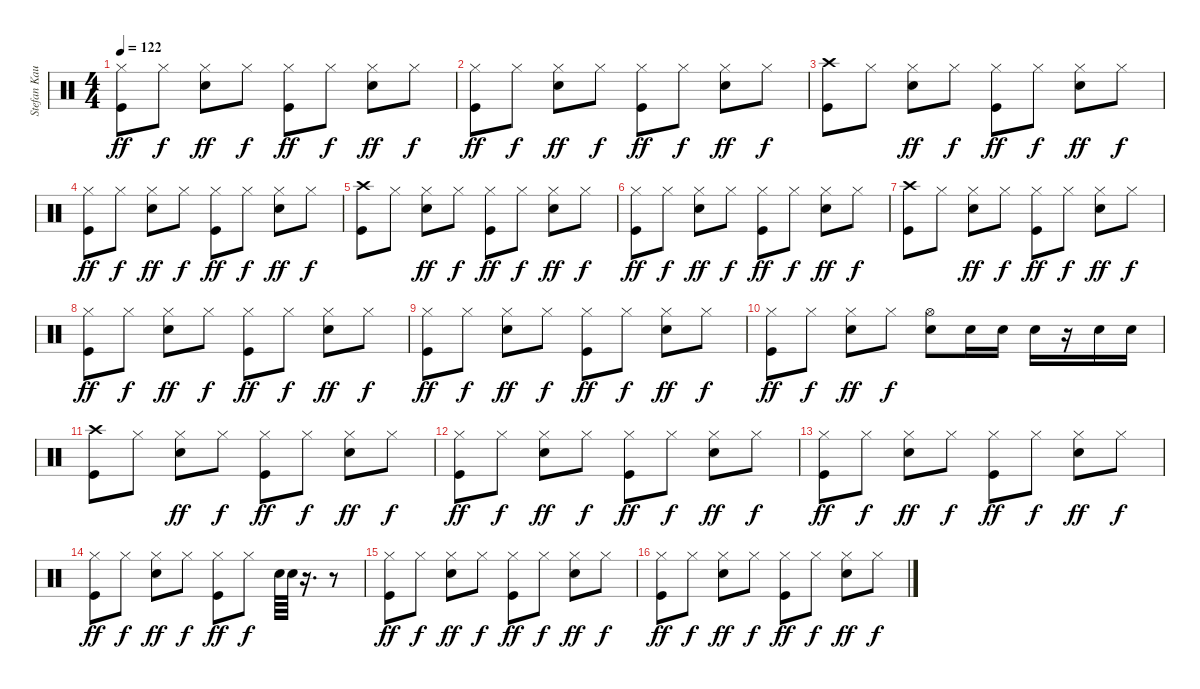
\track ("Stefan Kaufmann" "Stefan Kau") {instrument percussion}
\staff {score}
\articulation defaults
\ts (4 4)
\tempo 122
\clef neutral
\ks c
("Hi-Hat (closed)" "Kick (hit)").8{dy ff} "Hi-Hat (closed)".8{dy f} ("Hi-Hat (closed)" "Snare (hit) 2").8{dy ff} "Hi-Hat (closed)".8{dy f} ("Hi-Hat (closed)" "Kick (hit)").8{dy ff} "Hi-Hat (closed)".8{dy f} ("Hi-Hat (closed)" "Snare (hit) 2").8{dy ff} "Hi-Hat (closed)".8{dy f} |
("Hi-Hat (closed)" "Kick (hit)").8{dy ff} "Hi-Hat (closed)".8{dy f} ("Hi-Hat (closed)" "Snare (hit) 2").8{dy ff} "Hi-Hat (closed)".8{dy f} ("Hi-Hat (closed)" "Kick (hit)").8{dy ff} "Hi-Hat (closed)".8{dy f} ("Hi-Hat (closed)" "Snare (hit) 2").8{dy ff} "Hi-Hat (closed)".8{dy f} |
("Crash high (hit)" "Kick (hit)").8 "Hi-Hat (closed)".8 ("Hi-Hat (closed)" "Snare (hit) 2").8{dy ff} "Hi-Hat (closed)".8{dy f} ("Hi-Hat (closed)" "Kick (hit)").8{dy ff} "Hi-Hat (closed)".8{dy f} ("Hi-Hat (closed)" "Snare (hit) 2").8{dy ff} "Hi-Hat (closed)".8{dy f} |
("Hi-Hat (closed)" "Kick (hit)").8{dy ff} "Hi-Hat (closed)".8{dy f} ("Hi-Hat (closed)" "Snare (hit) 2").8{dy ff} "Hi-Hat (closed)".8{dy f} ("Hi-Hat (closed)" "Kick (hit)").8{dy ff} "Hi-Hat (closed)".8{dy f} ("Hi-Hat (closed)" "Snare (hit) 2").8{dy ff} "Hi-Hat (closed)".8{dy f} |
("Crash high (hit)" "Kick (hit)").8 "Hi-Hat (closed)".8 ("Hi-Hat (closed)" "Snare (hit) 2").8{dy ff} "Hi-Hat (closed)".8{dy f} ("Hi-Hat (closed)" "Kick (hit)").8{dy ff} "Hi-Hat (closed)".8{dy f} ("Hi-Hat (closed)" "Snare (hit) 2").8{dy ff} "Hi-Hat (closed)".8{dy f} |
("Hi-Hat (closed)" "Kick (hit)").8{dy ff} "Hi-Hat (closed)".8{dy f} ("Hi-Hat (closed)" "Snare (hit) 2").8{dy ff} "Hi-Hat (closed)".8{dy f} ("Hi-Hat (closed)" "Kick (hit)").8{dy ff} "Hi-Hat (closed)".8{dy f} ("Hi-Hat (closed)" "Snare (hit) 2").8{dy ff} "Hi-Hat (closed)".8{dy f} |
("Crash high (hit)" "Kick (hit)").8 "Hi-Hat (closed)".8 ("Hi-Hat (closed)" "Snare (hit) 2").8{dy ff} "Hi-Hat (closed)".8{dy f} ("Hi-Hat (closed)" "Kick (hit)").8{dy ff} "Hi-Hat (closed)".8{dy f} ("Hi-Hat (closed)" "Snare (hit) 2").8{dy ff} "Hi-Hat (closed)".8{dy f} |
("Hi-Hat (closed)" "Kick (hit)").8{dy ff} "Hi-Hat (closed)".8{dy f} ("Hi-Hat (closed)" "Snare (hit) 2").8{dy ff} "Hi-Hat (closed)".8{dy f} ("Hi-Hat (closed)" "Kick (hit)").8{dy ff} "Hi-Hat (closed)".8{dy f} ("Hi-Hat (closed)" "Snare (hit) 2").8{dy ff} "Hi-Hat (closed)".8{dy f} |
("Hi-Hat (closed)" "Kick (hit)").8{dy ff} "Hi-Hat (closed)".8{dy f} ("Hi-Hat (closed)" "Snare (hit) 2").8{dy ff} "Hi-Hat (closed)".8{dy f} ("Hi-Hat (closed)" "Kick (hit)").8{dy ff} "Hi-Hat (closed)".8{dy f} ("Hi-Hat (closed)" "Snare (hit) 2").8{dy ff} "Hi-Hat (closed)".8{dy f} |
("Hi-Hat (closed)" "Kick (hit)").8{dy ff} "Hi-Hat (closed)".8{dy f} ("Hi-Hat (closed)" "Snare (hit) 2").8{dy ff} "Hi-Hat (closed)".8{dy f} ("Hi-Hat (open)" "Snare (hit) 2").8 "Snare (hit) 2".16 "Snare (hit) 2".16 "Snare (hit) 2".16 r.16 "Snare (hit) 2".16 "Snare (hit) 2".16 |
("Crash high (hit)" "Kick (hit)").8 "Hi-Hat (closed)".8 ("Hi-Hat (closed)" "Snare (hit) 2").8{dy ff} "Hi-Hat (closed)".8{dy f} ("Hi-Hat (closed)" "Kick (hit)").8{dy ff} "Hi-Hat (closed)".8{dy f} ("Hi-Hat (closed)" "Snare (hit) 2").8{dy ff} "Hi-Hat (closed)".8{dy f} |
("Hi-Hat (closed)" "Kick (hit)").8{dy ff} "Hi-Hat (closed)".8{dy f} ("Hi-Hat (closed)" "Snare (hit) 2").8{dy ff} "Hi-Hat (closed)".8{dy f} ("Hi-Hat (closed)" "Kick (hit)").8{dy ff} "Hi-Hat (closed)".8{dy f} ("Hi-Hat (closed)" "Snare (hit) 2").8{dy ff} "Hi-Hat (closed)".8{dy f} |
("Hi-Hat (closed)" "Kick (hit)").8{dy ff} "Hi-Hat (closed)".8{dy f} ("Hi-Hat (closed)" "Snare (hit) 2").8{dy ff} "Hi-Hat (closed)".8{dy f} ("Hi-Hat (closed)" "Kick (hit)").8{dy ff} "Hi-Hat (closed)".8{dy f} ("Hi-Hat (closed)" "Snare (hit) 2").8{dy ff} "Hi-Hat (closed)".8{dy f} |
("Hi-Hat (closed)" "Kick (hit)").8{dy ff} "Hi-Hat (closed)".8{dy f} ("Hi-Hat (closed)" "Snare (hit) 2").8{dy ff} "Hi-Hat (closed)".8{dy f} ("Hi-Hat (closed)" "Kick (hit)").8{dy ff} "Hi-Hat (closed)".8{dy f} "Snare (hit) 2".64 "Snare (hit) 2".64 r.16{d} r.8 |
("Hi-Hat (closed)" "Kick (hit)").8{dy ff} "Hi-Hat (closed)".8{dy f} ("Hi-Hat (closed)" "Snare (hit) 2").8{dy ff} "Hi-Hat (closed)".8{dy f} ("Hi-Hat (closed)" "Kick (hit)").8{dy ff} "Hi-Hat (closed)".8{dy f} ("Hi-Hat (closed)" "Snare (hit) 2").8{dy ff} "Hi-Hat (closed)".8{dy f} |
("Hi-Hat (closed)" "Kick (hit)").8{dy ff} "Hi-Hat (closed)".8{dy f} ("Hi-Hat (closed)" "Snare (hit) 2").8{dy ff} "Hi-Hat (closed)".8{dy f} ("Hi-Hat (closed)" "Kick (hit)").8{dy ff} "Hi-Hat (closed)".8{dy f} ("Hi-Hat (closed)" "Snare (hit) 2").8{dy ff} "Hi-Hat (closed)".8{dy f}
